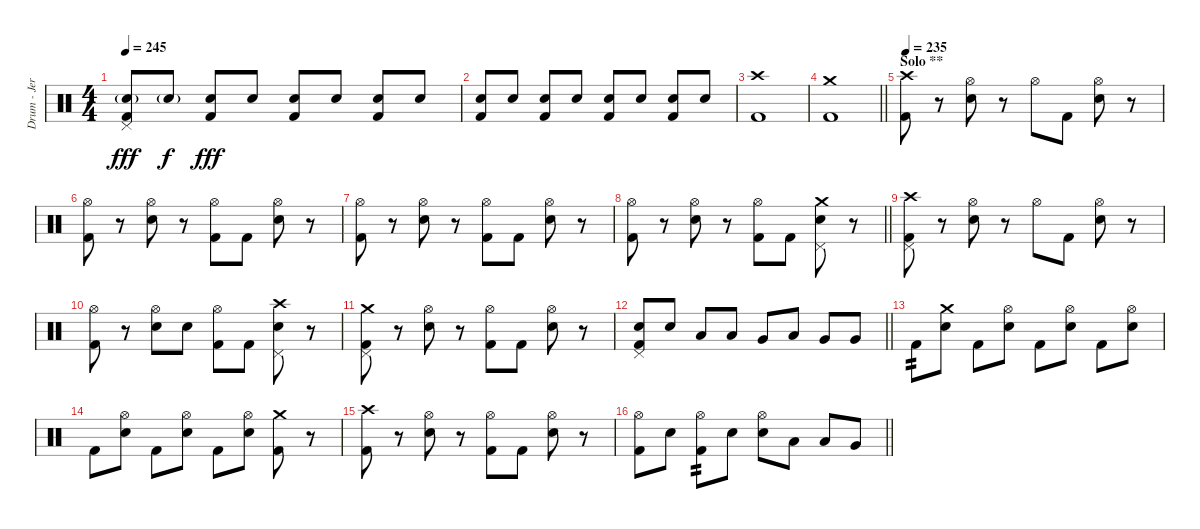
\track ("Drum - Jerinx" "Drum - Jer") {instrument percussion}
\staff {score}
\articulation defaults
\ts (4 4)
\tempo 245
\clef neutral
\ks c
("Pedal Hi-Hat (hit)" "Snare (hit) 2"{g} "Kick (hit) 2").8{dy fff} "Snare (hit) 2"{g}.8{dy f} ("Snare (hit) 2" "Kick (hit) 2").8{dy fff} "Snare (hit) 2".8 ("Snare (hit) 2" "Kick (hit) 2").8 "Snare (hit) 2".8 ("Snare (hit) 2" "Kick (hit) 2").8 "Snare (hit) 2".8 |
("Snare (hit) 2" "Kick (hit) 2").8 "Snare (hit) 2".8 ("Snare (hit) 2" "Kick (hit) 2").8 "Snare (hit) 2".8 ("Snare (hit) 2" "Kick (hit) 2").8 "Snare (hit) 2".8 ("Snare (hit) 2" "Kick (hit) 2").8 "Snare (hit) 2".8 |
("Kick (hit) 2" "Crash high (hit)").1 |
\barLineRight lightlight
("Kick (hit) 2" "Crash medium (hit)").1 |
\section ("" "Solo **")
\tempo 235
("Kick (hit) 2" "Crash high (hit)").8 r.8 ("Hi-Hat (open)" "Snare (hit) 2").8 r.8 "Hi-Hat (open)".8 "Kick (hit) 2".8 ("Hi-Hat (open)" "Snare (hit) 2").8 r.8 |
("Hi-Hat (open)" "Kick (hit) 2").8 r.8 ("Hi-Hat (open)" "Snare (hit) 2").8 r.8 ("Hi-Hat (open)" "Kick (hit) 2").8 "Kick (hit) 2".8 ("Hi-Hat (open)" "Snare (hit) 2").8 r.8 |
("Hi-Hat (open)" "Kick (hit) 2").8 r.8 ("Hi-Hat (open)" "Snare (hit) 2").8 r.8 ("Hi-Hat (open)" "Kick (hit) 2").8 "Kick (hit) 2".8 ("Hi-Hat (open)" "Snare (hit) 2").8 r.8 |
\barLineRight lightlight
("Hi-Hat (open)" "Kick (hit) 2").8 r.8 ("Hi-Hat (open)" "Snare (hit) 2").8 r.8 ("Hi-Hat (open)" "Kick (hit) 2").8 "Kick (hit) 2".8 ("Pedal Hi-Hat (hit)" "Snare (hit) 2" "Crash medium (hit)").8 r.8 |
("Pedal Hi-Hat (hit)" "Kick (hit) 2" "Crash high (hit)").8 r.8 ("Hi-Hat (open)" "Snare (hit) 2").8 r.8 "Hi-Hat (open)".8 "Kick (hit) 2".8 ("Hi-Hat (open)" "Snare (hit) 2").8 r.8 |
("Hi-Hat (open)" "Kick (hit) 2").8 r.8 ("Hi-Hat (open)" "Snare (hit) 2").8 "Snare (hit) 2".8 ("Hi-Hat (open)" "Kick (hit) 2").8 "Kick (hit) 2".8 ("Pedal Hi-Hat (hit)" "Snare (hit) 2" "Crash high (hit)").8 r.8 |
("Pedal Hi-Hat (hit)" "Kick (hit) 2" "Crash medium (hit)").8 r.8 ("Hi-Hat (open)" "Snare (hit) 2").8 r.8 ("Hi-Hat (open)" "Kick (hit) 2").8 "Kick (hit) 2".8 ("Hi-Hat (open)" "Snare (hit) 2").8 r.8 |
\barLineRight lightlight
("Pedal Hi-Hat (hit)" "Snare (hit) 2" "Kick (hit) 2").8 "Snare (hit) 2".8 "Low Tom (hit)".8 "Low Tom (hit)".8 "Very Low Tom (hit)".8 "Low Floor Tom (hit)".8 "Very Low Tom (hit)".8 "Very Low Tom (hit)".8 |
"Kick (hit) 2".8{tp 2} ("Snare (hit) 2" "Crash medium (hit)").8 "Kick (hit) 2".8 ("Hi-Hat (open)" "Snare (hit) 2").8 "Kick (hit) 2".8 ("Hi-Hat (open)" "Snare (hit) 2").8 "Kick (hit) 2".8 ("Hi-Hat (open)" "Snare (hit) 2").8 |
"Kick (hit) 2".8 ("Hi-Hat (open)" "Snare (hit) 2").8 "Kick (hit) 2".8 ("Hi-Hat (open)" "Snare (hit) 2").8 "Kick (hit) 2".8 ("Hi-Hat (open)" "Snare (hit) 2").8 ("Kick (hit) 2" "Crash medium (hit)").8 r.8 |
("Kick (hit) 2" "Crash high (hit)").8 r.8 ("Hi-Hat (open)" "Snare (hit) 2").8 r.8 ("Hi-Hat (open)" "Kick (hit) 2").8 "Kick (hit) 2".8 ("Hi-Hat (open)" "Snare (hit) 2").8 r.8 |
\barLineRight lightlight
("Hi-Hat (open)" "Kick (hit) 2").8 "Snare (hit) 2".8 ("Hi-Hat (open)" "Kick (hit) 2").8{tp 2} "Snare (hit) 2".8 ("Hi-Hat (open)" "Snare (hit) 2").8 "Low Tom (hit)".8 "Low Tom (hit)".8 "Very Low Tom (hit)".8
